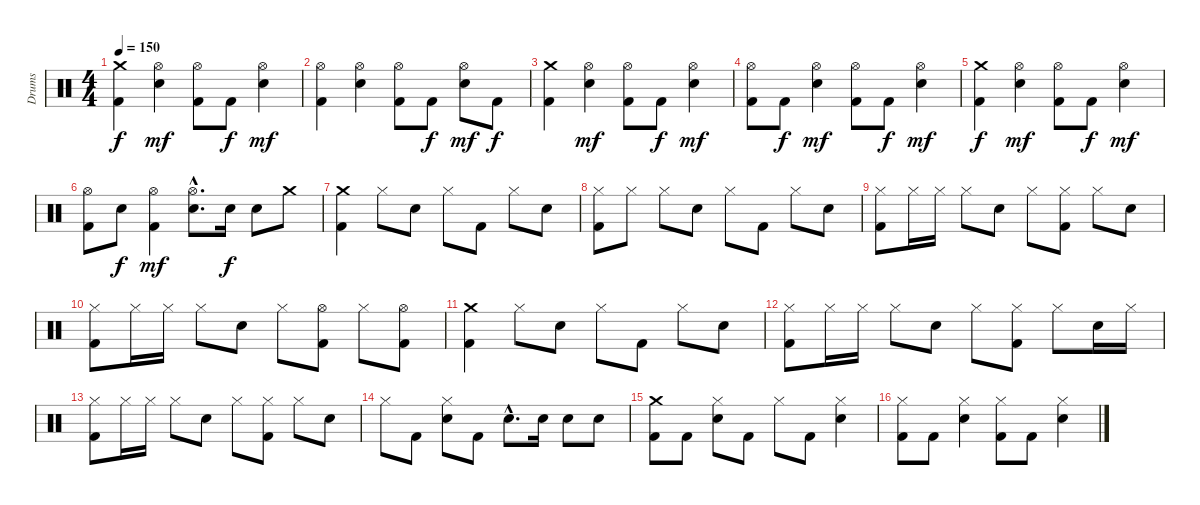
\track ("Drums" "Drums") {instrument percussion}
\staff {score}
\articulation defaults
\ts (4 4)
\tempo 150
\clef neutral
\ks c
("Crash medium (hit)" "Kick (hit) 2").4{dy f} ("Hi-Hat (open)" "Electric Snare (hit)").4{dy mf} ("Hi-Hat (open)" "Kick (hit) 2").8 "Kick (hit) 2".8{dy f} ("Hi-Hat (open)" "Electric Snare (hit)").4{dy mf} |
("Hi-Hat (open)" "Kick (hit) 2").4 ("Hi-Hat (open)" "Electric Snare (hit)").4 ("Hi-Hat (open)" "Kick (hit) 2").8 "Kick (hit) 2".8{dy f} ("Hi-Hat (open)" "Electric Snare (hit)").8{dy mf} "Kick (hit) 2".8{dy f} |
("Crash medium (hit)" "Kick (hit) 2").4 ("Hi-Hat (open)" "Electric Snare (hit)").4{dy mf} ("Hi-Hat (open)" "Kick (hit) 2").8 "Kick (hit) 2".8{dy f} ("Hi-Hat (open)" "Electric Snare (hit)").4{dy mf} |
("Hi-Hat (open)" "Kick (hit) 2").8 "Kick (hit) 2".8{dy f} ("Hi-Hat (open)" "Electric Snare (hit)").4{dy mf} ("Hi-Hat (open)" "Kick (hit) 2").8 "Kick (hit) 2".8{dy f} ("Hi-Hat (open)" "Electric Snare (hit)").4{dy mf} |
("Crash medium (hit)" "Kick (hit) 2").4{dy f} ("Hi-Hat (open)" "Electric Snare (hit)").4{dy mf} ("Hi-Hat (open)" "Kick (hit) 2").8 "Kick (hit) 2".8{dy f} ("Hi-Hat (open)" "Electric Snare (hit)").4{dy mf} |
("Hi-Hat (open)" "Kick (hit) 2").8 "Electric Snare (hit)".8{dy f} ("Hi-Hat (open)" "Kick (hit) 2").4{dy mf} ("Hi-Hat (open)"{hac} "Electric Snare (hit)"{hac}).8{d} "Electric Snare (hit)".16{dy f} "Electric Snare (hit)".8 "Crash medium (hit)".8 |
("Crash medium (hit)" "Kick (hit) 2").4 "Hi-Hat (closed)".8 "Electric Snare (hit)".8 "Hi-Hat (closed)".8 "Kick (hit) 2".8 "Hi-Hat (closed)".8 "Electric Snare (hit)".8 |
("Hi-Hat (closed)" "Kick (hit) 2").8 "Hi-Hat (closed)".8 "Hi-Hat (closed)".8 "Electric Snare (hit)".8 "Hi-Hat (closed)".8 "Kick (hit) 2".8 "Hi-Hat (closed)".8 "Electric Snare (hit)".8 |
("Hi-Hat (closed)" "Kick (hit) 2").8 "Hi-Hat (closed)".16 "Hi-Hat (closed)".16 "Hi-Hat (closed)".8 "Electric Snare (hit)".8 "Hi-Hat (closed)".8 ("Hi-Hat (closed)" "Kick (hit) 2").8 "Hi-Hat (closed)".8 "Electric Snare (hit)".8 |
("Hi-Hat (closed)" "Kick (hit) 2").8 "Hi-Hat (closed)".16 "Hi-Hat (closed)".16 "Hi-Hat (closed)".8 "Electric Snare (hit)".8 "Hi-Hat (closed)".8 ("Hi-Hat (open)" "Kick (hit) 2").8 "Hi-Hat (closed)".8 ("Hi-Hat (open)" "Kick (hit) 2").8 |
("Crash medium (hit)" "Kick (hit) 2").4 "Hi-Hat (closed)".8 "Electric Snare (hit)".8 "Hi-Hat (closed)".8 "Kick (hit) 2".8 "Hi-Hat (closed)".8 "Electric Snare (hit)".8 |
("Hi-Hat (closed)" "Kick (hit) 2").8 "Hi-Hat (closed)".16 "Hi-Hat (closed)".16 "Hi-Hat (closed)".8 "Electric Snare (hit)".8 "Hi-Hat (closed)".8 ("Hi-Hat (closed)" "Kick (hit) 2").8 "Hi-Hat (closed)".8 "Electric Snare (hit)".16 "Hi-Hat (closed)".16 |
("Hi-Hat (closed)" "Kick (hit) 2").8 "Hi-Hat (closed)".16 "Hi-Hat (closed)".16 "Hi-Hat (closed)".8 "Electric Snare (hit)".8 "Hi-Hat (closed)".8 ("Hi-Hat (closed)" "Kick (hit) 2").8 "Hi-Hat (closed)".8 "Electric Snare (hit)".8 |
"Hi-Hat (closed)".8 "Kick (hit) 2".8 ("Hi-Hat (closed)" "Electric Snare (hit)").8 "Kick (hit) 2".8 "Electric Snare (hit)"{hac}.8{d} "Electric Snare (hit)".16 "Electric Snare (hit)".8 "Electric Snare (hit)".8 |
("Crash medium (hit)" "Kick (hit) 2").8 "Kick (hit) 2".8 ("Hi-Hat (closed)" "Electric Snare (hit)").8 "Kick (hit) 2".8 "Hi-Hat (closed)".8 "Kick (hit) 2".8 ("Hi-Hat (closed)" "Electric Snare (hit)").4 |
("Hi-Hat (closed)" "Kick (hit) 2").8 "Kick (hit) 2".8 ("Hi-Hat (closed)" "Electric Snare (hit)").4 ("Hi-Hat (closed)" "Kick (hit) 2").8 "Kick (hit) 2".8 ("Hi-Hat (closed)" "Electric Snare (hit)").4
